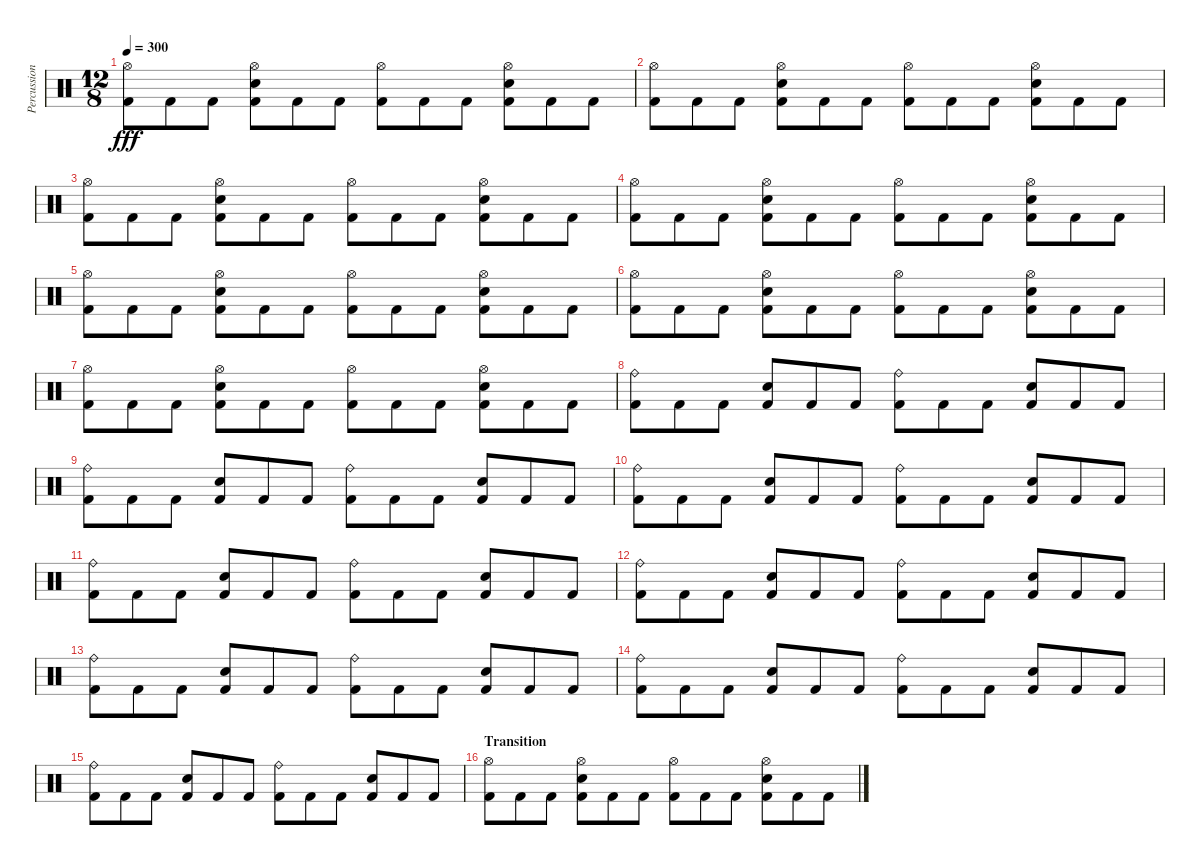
\track ("Percussion" "Percussion") {instrument percussion}
\staff {score}
\articulation defaults
\ts (12 8)
\tempo 300
\clef neutral
\ks c
("Hi-Hat (open)" "Kick (hit) 2").8{dy fff} "Kick (hit) 2".8 "Kick (hit) 2".8 ("Hi-Hat (open)" "Snare (hit) 2" "Kick (hit) 2").8 "Kick (hit) 2".8 "Kick (hit) 2".8 ("Hi-Hat (open)" "Kick (hit) 2").8 "Kick (hit) 2".8 "Kick (hit) 2".8 ("Hi-Hat (open)" "Snare (hit) 2" "Kick (hit) 2").8 "Kick (hit) 2".8 "Kick (hit) 2".8 |
("Hi-Hat (open)" "Kick (hit) 2").8 "Kick (hit) 2".8 "Kick (hit) 2".8 ("Hi-Hat (open)" "Snare (hit) 2" "Kick (hit) 2").8 "Kick (hit) 2".8 "Kick (hit) 2".8 ("Hi-Hat (open)" "Kick (hit) 2").8 "Kick (hit) 2".8 "Kick (hit) 2".8 ("Hi-Hat (open)" "Snare (hit) 2" "Kick (hit) 2").8 "Kick (hit) 2".8 "Kick (hit) 2".8 |
("Hi-Hat (open)" "Kick (hit) 2").8 "Kick (hit) 2".8 "Kick (hit) 2".8 ("Hi-Hat (open)" "Snare (hit) 2" "Kick (hit) 2").8 "Kick (hit) 2".8 "Kick (hit) 2".8 ("Hi-Hat (open)" "Kick (hit) 2").8 "Kick (hit) 2".8 "Kick (hit) 2".8 ("Hi-Hat (open)" "Snare (hit) 2" "Kick (hit) 2").8 "Kick (hit) 2".8 "Kick (hit) 2".8 |
("Hi-Hat (open)" "Kick (hit) 2").8 "Kick (hit) 2".8 "Kick (hit) 2".8 ("Hi-Hat (open)" "Snare (hit) 2" "Kick (hit) 2").8 "Kick (hit) 2".8 "Kick (hit) 2".8 ("Hi-Hat (open)" "Kick (hit) 2").8 "Kick (hit) 2".8 "Kick (hit) 2".8 ("Hi-Hat (open)" "Snare (hit) 2" "Kick (hit) 2").8 "Kick (hit) 2".8 "Kick (hit) 2".8 |
("Hi-Hat (open)" "Kick (hit) 2").8 "Kick (hit) 2".8 "Kick (hit) 2".8 ("Hi-Hat (open)" "Snare (hit) 2" "Kick (hit) 2").8 "Kick (hit) 2".8 "Kick (hit) 2".8 ("Hi-Hat (open)" "Kick (hit) 2").8 "Kick (hit) 2".8 "Kick (hit) 2".8 ("Hi-Hat (open)" "Snare (hit) 2" "Kick (hit) 2").8 "Kick (hit) 2".8 "Kick (hit) 2".8 |
("Hi-Hat (open)" "Kick (hit) 2").8 "Kick (hit) 2".8 "Kick (hit) 2".8 ("Hi-Hat (open)" "Snare (hit) 2" "Kick (hit) 2").8 "Kick (hit) 2".8 "Kick (hit) 2".8 ("Hi-Hat (open)" "Kick (hit) 2").8 "Kick (hit) 2".8 "Kick (hit) 2".8 ("Hi-Hat (open)" "Snare (hit) 2" "Kick (hit) 2").8 "Kick (hit) 2".8 "Kick (hit) 2".8 |
("Hi-Hat (open)" "Kick (hit) 2").8 "Kick (hit) 2".8 "Kick (hit) 2".8 ("Hi-Hat (open)" "Snare (hit) 2" "Kick (hit) 2").8 "Kick (hit) 2".8 "Kick (hit) 2".8 ("Hi-Hat (open)" "Kick (hit) 2").8 "Kick (hit) 2".8 "Kick (hit) 2".8 ("Hi-Hat (open)" "Snare (hit) 2" "Kick (hit) 2").8 "Kick (hit) 2".8 "Kick (hit) 2".8 |
("Ride (bell)" "Kick (hit) 2").8 "Kick (hit) 2".8 "Kick (hit) 2".8 ("Snare (hit) 2" "Kick (hit) 2").8 "Kick (hit) 2".8 "Kick (hit) 2".8 ("Ride (bell)" "Kick (hit) 2").8 "Kick (hit) 2".8 "Kick (hit) 2".8 ("Snare (hit) 2" "Kick (hit) 2").8 "Kick (hit) 2".8 "Kick (hit) 2".8 |
("Ride (bell)" "Kick (hit) 2").8 "Kick (hit) 2".8 "Kick (hit) 2".8 ("Snare (hit) 2" "Kick (hit) 2").8 "Kick (hit) 2".8 "Kick (hit) 2".8 ("Ride (bell)" "Kick (hit) 2").8 "Kick (hit) 2".8 "Kick (hit) 2".8 ("Snare (hit) 2" "Kick (hit) 2").8 "Kick (hit) 2".8 "Kick (hit) 2".8 |
("Ride (bell)" "Kick (hit) 2").8 "Kick (hit) 2".8 "Kick (hit) 2".8 ("Snare (hit) 2" "Kick (hit) 2").8 "Kick (hit) 2".8 "Kick (hit) 2".8 ("Ride (bell)" "Kick (hit) 2").8 "Kick (hit) 2".8 "Kick (hit) 2".8 ("Snare (hit) 2" "Kick (hit) 2").8 "Kick (hit) 2".8 "Kick (hit) 2".8 |
("Ride (bell)" "Kick (hit) 2").8 "Kick (hit) 2".8 "Kick (hit) 2".8 ("Snare (hit) 2" "Kick (hit) 2").8 "Kick (hit) 2".8 "Kick (hit) 2".8 ("Ride (bell)" "Kick (hit) 2").8 "Kick (hit) 2".8 "Kick (hit) 2".8 ("Snare (hit) 2" "Kick (hit) 2").8 "Kick (hit) 2".8 "Kick (hit) 2".8 |
("Ride (bell)" "Kick (hit) 2").8 "Kick (hit) 2".8 "Kick (hit) 2".8 ("Snare (hit) 2" "Kick (hit) 2").8 "Kick (hit) 2".8 "Kick (hit) 2".8 ("Ride (bell)" "Kick (hit) 2").8 "Kick (hit) 2".8 "Kick (hit) 2".8 ("Snare (hit) 2" "Kick (hit) 2").8 "Kick (hit) 2".8 "Kick (hit) 2".8 |
("Ride (bell)" "Kick (hit) 2").8 "Kick (hit) 2".8 "Kick (hit) 2".8 ("Snare (hit) 2" "Kick (hit) 2").8 "Kick (hit) 2".8 "Kick (hit) 2".8 ("Ride (bell)" "Kick (hit) 2").8 "Kick (hit) 2".8 "Kick (hit) 2".8 ("Snare (hit) 2" "Kick (hit) 2").8 "Kick (hit) 2".8 "Kick (hit) 2".8 |
("Ride (bell)" "Kick (hit) 2").8 "Kick (hit) 2".8 "Kick (hit) 2".8 ("Snare (hit) 2" "Kick (hit) 2").8 "Kick (hit) 2".8 "Kick (hit) 2".8 ("Ride (bell)" "Kick (hit) 2").8 "Kick (hit) 2".8 "Kick (hit) 2".8 ("Snare (hit) 2" "Kick (hit) 2").8 "Kick (hit) 2".8 "Kick (hit) 2".8 |
("Ride (bell)" "Kick (hit) 2").8 "Kick (hit) 2".8 "Kick (hit) 2".8 ("Snare (hit) 2" "Kick (hit) 2").8 "Kick (hit) 2".8 "Kick (hit) 2".8 ("Ride (bell)" "Kick (hit) 2").8 "Kick (hit) 2".8 "Kick (hit) 2".8 ("Snare (hit) 2" "Kick (hit) 2").8 "Kick (hit) 2".8 "Kick (hit) 2".8 |
\section ("" "Transition")
("Hi-Hat (open)" "Kick (hit) 2").8 "Kick (hit) 2".8 "Kick (hit) 2".8 ("Hi-Hat (open)" "Snare (hit) 2" "Kick (hit) 2").8 "Kick (hit) 2".8 "Kick (hit) 2".8 ("Hi-Hat (open)" "Kick (hit) 2").8 "Kick (hit) 2".8 "Kick (hit) 2".8 ("Hi-Hat (open)" "Snare (hit) 2" "Kick (hit) 2").8 "Kick (hit) 2".8 "Kick (hit) 2".8
